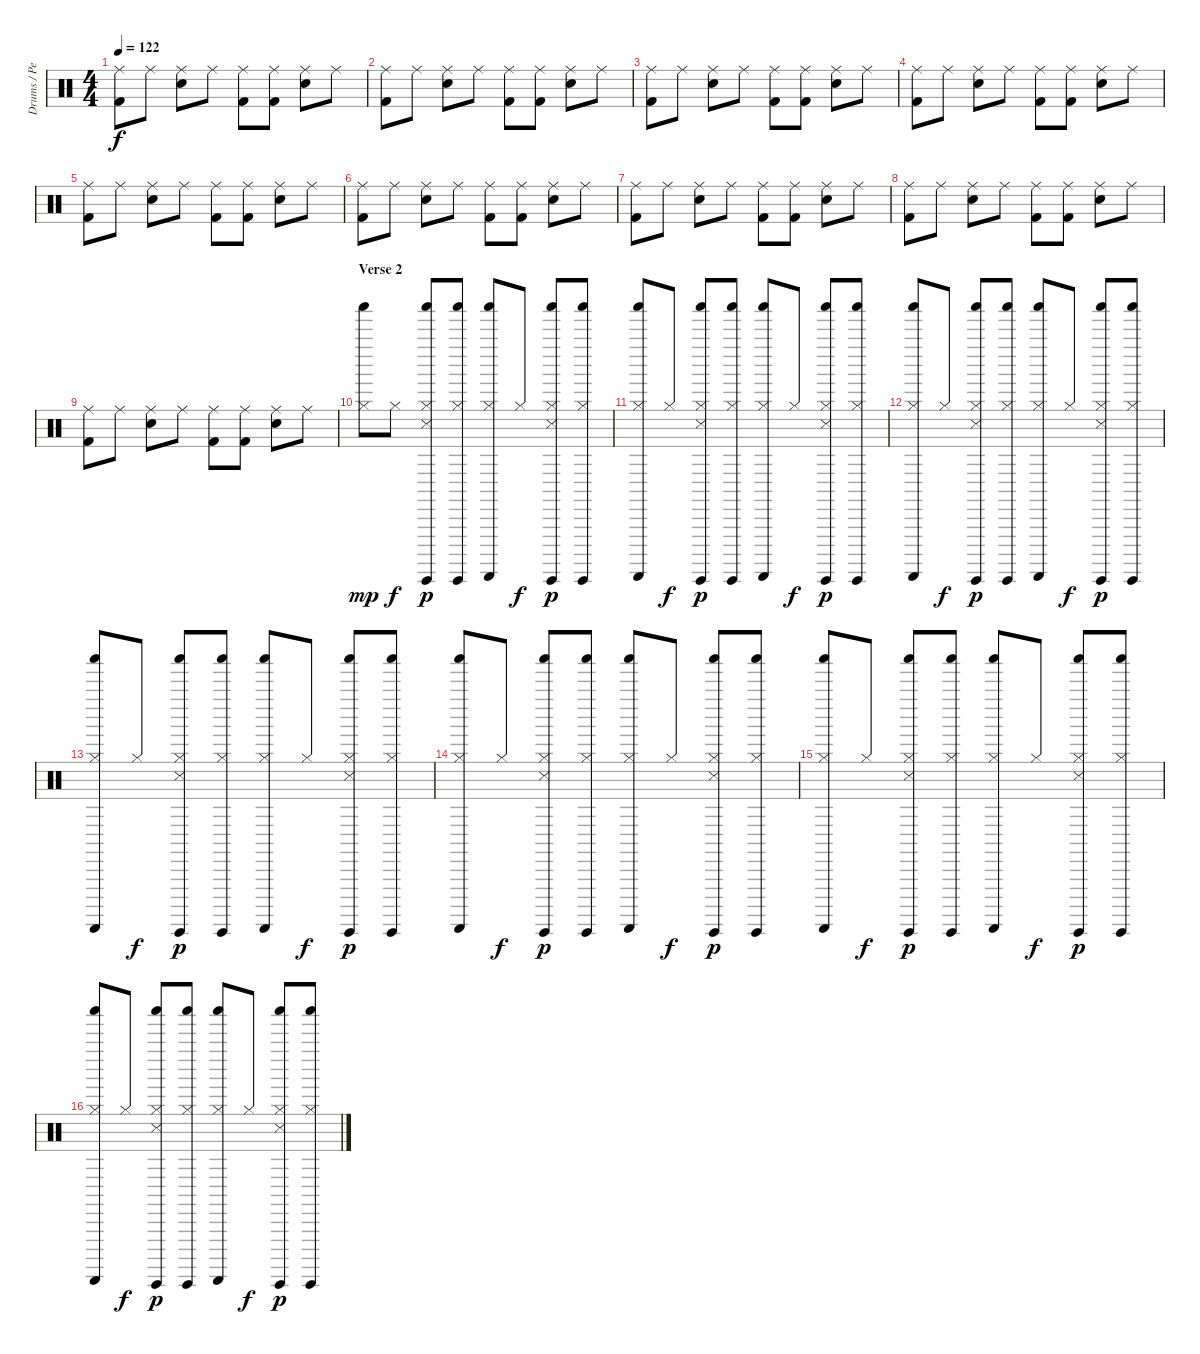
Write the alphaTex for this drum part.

\track ("Drums / Percussion" "Drums / Pe") {instrument percussion}
\staff {score}
\articulation defaults
\ts (4 4)
\tempo 122
\clef neutral
\ks c
("Ride (middle)" "Kick (hit) 2").8{dy f} "Ride (middle)".8 ("Ride (middle)" "Snare (hit) 2").8 "Ride (middle)".8 ("Ride (middle)" "Kick (hit) 2").8 ("Ride (middle)" "Kick (hit) 2").8 ("Ride (middle)" "Snare (hit) 2").8 "Ride (middle)".8 |
("Ride (middle)" "Kick (hit) 2").8 "Ride (middle)".8 ("Ride (middle)" "Snare (hit) 2").8 "Ride (middle)".8 ("Ride (middle)" "Kick (hit) 2").8 ("Ride (middle)" "Kick (hit) 2").8 ("Ride (middle)" "Snare (hit) 2").8 "Ride (middle)".8 |
("Ride (middle)" "Kick (hit) 2").8 "Ride (middle)".8 ("Ride (middle)" "Snare (hit) 2").8 "Ride (middle)".8 ("Ride (middle)" "Kick (hit) 2").8 ("Ride (middle)" "Kick (hit) 2").8 ("Ride (middle)" "Snare (hit) 2").8 "Ride (middle)".8 |
("Ride (middle)" "Kick (hit) 2").8 "Ride (middle)".8 ("Ride (middle)" "Snare (hit) 2").8 "Ride (middle)".8 ("Ride (middle)" "Kick (hit) 2").8 ("Ride (middle)" "Kick (hit) 2").8 ("Ride (middle)" "Snare (hit) 2").8 "Ride (middle)".8 |
("Ride (middle)" "Kick (hit) 2").8 "Ride (middle)".8 ("Ride (middle)" "Snare (hit) 2").8 "Ride (middle)".8 ("Ride (middle)" "Kick (hit) 2").8 ("Ride (middle)" "Kick (hit) 2").8 ("Ride (middle)" "Snare (hit) 2").8 "Ride (middle)".8 |
("Ride (middle)" "Kick (hit) 2").8 "Ride (middle)".8 ("Ride (middle)" "Snare (hit) 2").8 "Ride (middle)".8 ("Ride (middle)" "Kick (hit) 2").8 ("Ride (middle)" "Kick (hit) 2").8 ("Ride (middle)" "Snare (hit) 2").8 "Ride (middle)".8 |
("Ride (middle)" "Kick (hit) 2").8 "Ride (middle)".8 ("Ride (middle)" "Snare (hit) 2").8 "Ride (middle)".8 ("Ride (middle)" "Kick (hit) 2").8 ("Ride (middle)" "Kick (hit) 2").8 ("Ride (middle)" "Snare (hit) 2").8 "Ride (middle)".8 |
("Ride (middle)" "Kick (hit) 2").8 "Ride (middle)".8 ("Ride (middle)" "Snare (hit) 2").8 "Ride (middle)".8 ("Ride (middle)" "Kick (hit) 2").8 ("Ride (middle)" "Kick (hit) 2").8 ("Ride (middle)" "Snare (hit) 2").8 "Ride (middle)".8 |
("Ride (middle)" "Kick (hit) 2").8 "Ride (middle)".8 ("Ride (middle)" "Snare (hit) 2").8 "Ride (middle)".8 ("Ride (middle)" "Kick (hit) 2").8 ("Ride (middle)" "Kick (hit) 2").8 ("Ride (middle)" "Snare (hit) 2").8 "Ride (middle)".8 |
\section ("" "Verse 2")
("Hi-Hat (closed)" "Shaker (hit)").8{dy mp} "Hi-Hat (closed)".8{dy f} ("Hi-Hat (closed)" "Shaker (hit)" "Guiro (hit)" "Snare (side stick) 3").8{dy p} ("Hi-Hat (closed)" "Shaker (hit)" "Guiro (hit)").8 ("Hi-Hat (closed)" "Shaker (hit)" "Guiro (scrap-return)").8 "Hi-Hat (closed)".8{dy f} ("Hi-Hat (closed)" "Shaker (hit)" "Guiro (hit)" "Snare (side stick) 3").8{dy p} ("Hi-Hat (closed)" "Shaker (hit)" "Guiro (hit)").8 |
("Hi-Hat (closed)" "Shaker (hit)" "Guiro (scrap-return)").8 "Hi-Hat (closed)".8{dy f} ("Hi-Hat (closed)" "Shaker (hit)" "Guiro (hit)" "Snare (side stick) 3").8{dy p} ("Hi-Hat (closed)" "Shaker (hit)" "Guiro (hit)").8 ("Hi-Hat (closed)" "Shaker (hit)" "Guiro (scrap-return)").8 "Hi-Hat (closed)".8{dy f} ("Hi-Hat (closed)" "Shaker (hit)" "Guiro (hit)" "Snare (side stick) 3").8{dy p} ("Hi-Hat (closed)" "Shaker (hit)" "Guiro (hit)").8 |
("Hi-Hat (closed)" "Shaker (hit)" "Guiro (scrap-return)").8 "Hi-Hat (closed)".8{dy f} ("Hi-Hat (closed)" "Shaker (hit)" "Guiro (hit)" "Snare (side stick) 3").8{dy p} ("Hi-Hat (closed)" "Shaker (hit)" "Guiro (hit)").8 ("Hi-Hat (closed)" "Shaker (hit)" "Guiro (scrap-return)").8 "Hi-Hat (closed)".8{dy f} ("Hi-Hat (closed)" "Shaker (hit)" "Guiro (hit)" "Snare (side stick) 3").8{dy p} ("Hi-Hat (closed)" "Shaker (hit)" "Guiro (hit)").8 |
("Hi-Hat (closed)" "Shaker (hit)" "Guiro (scrap-return)").8 "Hi-Hat (closed)".8{dy f} ("Hi-Hat (closed)" "Shaker (hit)" "Guiro (hit)" "Snare (side stick) 3").8{dy p} ("Hi-Hat (closed)" "Shaker (hit)" "Guiro (hit)").8 ("Hi-Hat (closed)" "Shaker (hit)" "Guiro (scrap-return)").8 "Hi-Hat (closed)".8{dy f} ("Hi-Hat (closed)" "Shaker (hit)" "Guiro (hit)" "Snare (side stick) 3").8{dy p} ("Hi-Hat (closed)" "Shaker (hit)" "Guiro (hit)").8 |
("Hi-Hat (closed)" "Shaker (hit)" "Guiro (scrap-return)").8 "Hi-Hat (closed)".8{dy f} ("Hi-Hat (closed)" "Shaker (hit)" "Guiro (hit)" "Snare (side stick) 3").8{dy p} ("Hi-Hat (closed)" "Shaker (hit)" "Guiro (hit)").8 ("Hi-Hat (closed)" "Shaker (hit)" "Guiro (scrap-return)").8 "Hi-Hat (closed)".8{dy f} ("Hi-Hat (closed)" "Shaker (hit)" "Guiro (hit)" "Snare (side stick) 3").8{dy p} ("Hi-Hat (closed)" "Shaker (hit)" "Guiro (hit)").8 |
("Hi-Hat (closed)" "Shaker (hit)" "Guiro (scrap-return)").8 "Hi-Hat (closed)".8{dy f} ("Hi-Hat (closed)" "Shaker (hit)" "Guiro (hit)" "Snare (side stick) 3").8{dy p} ("Hi-Hat (closed)" "Shaker (hit)" "Guiro (hit)").8 ("Hi-Hat (closed)" "Shaker (hit)" "Guiro (scrap-return)").8 "Hi-Hat (closed)".8{dy f} ("Hi-Hat (closed)" "Shaker (hit)" "Guiro (hit)" "Snare (side stick) 3").8{dy p} ("Hi-Hat (closed)" "Shaker (hit)" "Guiro (hit)").8 |
("Hi-Hat (closed)" "Shaker (hit)" "Guiro (scrap-return)").8 "Hi-Hat (closed)".8{dy f} ("Hi-Hat (closed)" "Shaker (hit)" "Guiro (hit)" "Snare (side stick) 3").8{dy p} ("Hi-Hat (closed)" "Shaker (hit)" "Guiro (hit)").8 ("Hi-Hat (closed)" "Shaker (hit)" "Guiro (scrap-return)").8 "Hi-Hat (closed)".8{dy f} ("Hi-Hat (closed)" "Shaker (hit)" "Guiro (hit)" "Snare (side stick) 3").8{dy p} ("Hi-Hat (closed)" "Shaker (hit)" "Guiro (hit)").8
